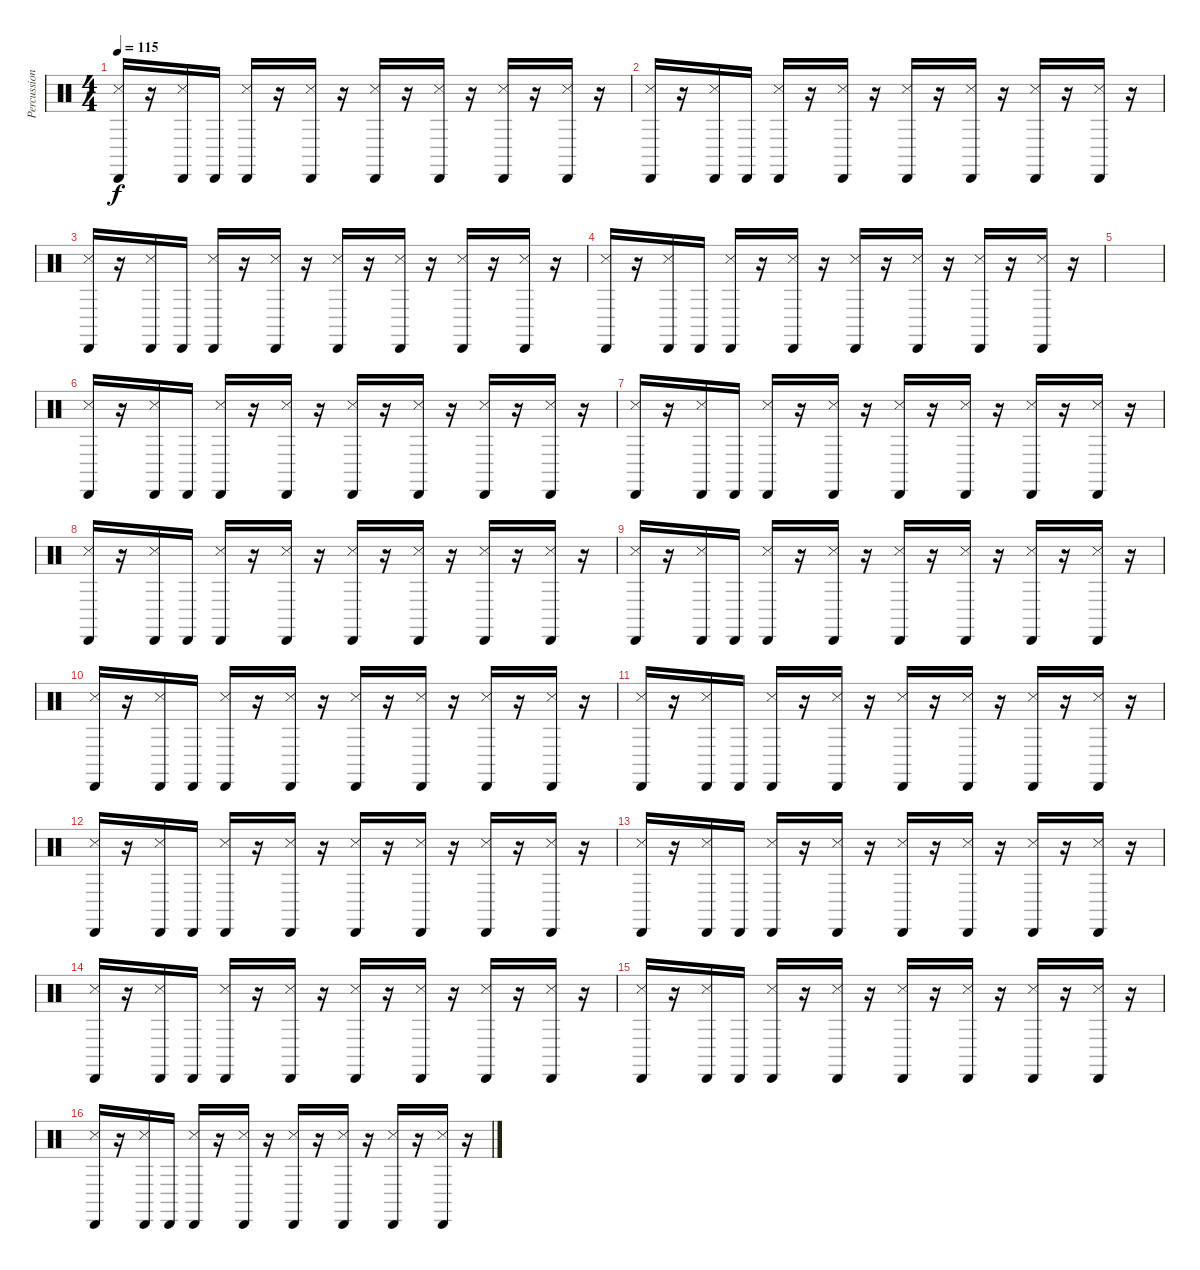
\track ("Percussion" "Percussion") {instrument percussion}
\staff {score}
\articulation defaults
\ts (4 4)
\tempo 115
\clef neutral
\ks c
("Cabasa (hit)" "Snare (side stick) 3").16{dy f} r.16 ("Cabasa (hit)" "Snare (side stick) 3").16 "Cabasa (hit)".16 ("Cabasa (hit)" "Snare (side stick) 3").16 r.16 ("Cabasa (hit)" "Snare (side stick) 3").16 r.16 ("Cabasa (hit)" "Snare (side stick) 3").16 r.16 ("Cabasa (hit)" "Snare (side stick) 3").16 r.16 ("Cabasa (hit)" "Snare (side stick) 3").16 r.16 ("Cabasa (hit)" "Snare (side stick) 3").16 r.16 |
("Cabasa (hit)" "Snare (side stick) 3").16 r.16 ("Cabasa (hit)" "Snare (side stick) 3").16 "Cabasa (hit)".16 ("Cabasa (hit)" "Snare (side stick) 3").16 r.16 ("Cabasa (hit)" "Snare (side stick) 3").16 r.16 ("Cabasa (hit)" "Snare (side stick) 3").16 r.16 ("Cabasa (hit)" "Snare (side stick) 3").16 r.16 ("Cabasa (hit)" "Snare (side stick) 3").16 r.16 ("Cabasa (hit)" "Snare (side stick) 3").16 r.16 |
("Cabasa (hit)" "Snare (side stick) 3").16 r.16 ("Cabasa (hit)" "Snare (side stick) 3").16 "Cabasa (hit)".16 ("Cabasa (hit)" "Snare (side stick) 3").16 r.16 ("Cabasa (hit)" "Snare (side stick) 3").16 r.16 ("Cabasa (hit)" "Snare (side stick) 3").16 r.16 ("Cabasa (hit)" "Snare (side stick) 3").16 r.16 ("Cabasa (hit)" "Snare (side stick) 3").16 r.16 ("Cabasa (hit)" "Snare (side stick) 3").16 r.16 |
("Cabasa (hit)" "Snare (side stick) 3").16 r.16 ("Cabasa (hit)" "Snare (side stick) 3").16 "Cabasa (hit)".16 ("Cabasa (hit)" "Snare (side stick) 3").16 r.16 ("Cabasa (hit)" "Snare (side stick) 3").16 r.16 ("Cabasa (hit)" "Snare (side stick) 3").16 r.16 ("Cabasa (hit)" "Snare (side stick) 3").16 r.16 ("Cabasa (hit)" "Snare (side stick) 3").16 r.16 ("Cabasa (hit)" "Snare (side stick) 3").16 r.16 |
|
("Cabasa (hit)" "Snare (side stick) 3").16 r.16 ("Cabasa (hit)" "Snare (side stick) 3").16 "Cabasa (hit)".16 ("Cabasa (hit)" "Snare (side stick) 3").16 r.16 ("Cabasa (hit)" "Snare (side stick) 3").16 r.16 ("Cabasa (hit)" "Snare (side stick) 3").16 r.16 ("Cabasa (hit)" "Snare (side stick) 3").16 r.16 ("Cabasa (hit)" "Snare (side stick) 3").16 r.16 ("Cabasa (hit)" "Snare (side stick) 3").16 r.16 |
("Cabasa (hit)" "Snare (side stick) 3").16 r.16 ("Cabasa (hit)" "Snare (side stick) 3").16 "Cabasa (hit)".16 ("Cabasa (hit)" "Snare (side stick) 3").16 r.16 ("Cabasa (hit)" "Snare (side stick) 3").16 r.16 ("Cabasa (hit)" "Snare (side stick) 3").16 r.16 ("Cabasa (hit)" "Snare (side stick) 3").16 r.16 ("Cabasa (hit)" "Snare (side stick) 3").16 r.16 ("Cabasa (hit)" "Snare (side stick) 3").16 r.16 |
("Cabasa (hit)" "Snare (side stick) 3").16 r.16 ("Cabasa (hit)" "Snare (side stick) 3").16 "Cabasa (hit)".16 ("Cabasa (hit)" "Snare (side stick) 3").16 r.16 ("Cabasa (hit)" "Snare (side stick) 3").16 r.16 ("Cabasa (hit)" "Snare (side stick) 3").16 r.16 ("Cabasa (hit)" "Snare (side stick) 3").16 r.16 ("Cabasa (hit)" "Snare (side stick) 3").16 r.16 ("Cabasa (hit)" "Snare (side stick) 3").16 r.16 |
("Cabasa (hit)" "Snare (side stick) 3").16 r.16 ("Cabasa (hit)" "Snare (side stick) 3").16 "Cabasa (hit)".16 ("Cabasa (hit)" "Snare (side stick) 3").16 r.16 ("Cabasa (hit)" "Snare (side stick) 3").16 r.16 ("Cabasa (hit)" "Snare (side stick) 3").16 r.16 ("Cabasa (hit)" "Snare (side stick) 3").16 r.16 ("Cabasa (hit)" "Snare (side stick) 3").16 r.16 ("Cabasa (hit)" "Snare (side stick) 3").16 r.16 |
("Cabasa (hit)" "Snare (side stick) 3").16 r.16 ("Cabasa (hit)" "Snare (side stick) 3").16 "Cabasa (hit)".16 ("Cabasa (hit)" "Snare (side stick) 3").16 r.16 ("Cabasa (hit)" "Snare (side stick) 3").16 r.16 ("Cabasa (hit)" "Snare (side stick) 3").16 r.16 ("Cabasa (hit)" "Snare (side stick) 3").16 r.16 ("Cabasa (hit)" "Snare (side stick) 3").16 r.16 ("Cabasa (hit)" "Snare (side stick) 3").16 r.16 |
("Cabasa (hit)" "Snare (side stick) 3").16 r.16 ("Cabasa (hit)" "Snare (side stick) 3").16 "Cabasa (hit)".16 ("Cabasa (hit)" "Snare (side stick) 3").16 r.16 ("Cabasa (hit)" "Snare (side stick) 3").16 r.16 ("Cabasa (hit)" "Snare (side stick) 3").16 r.16 ("Cabasa (hit)" "Snare (side stick) 3").16 r.16 ("Cabasa (hit)" "Snare (side stick) 3").16 r.16 ("Cabasa (hit)" "Snare (side stick) 3").16 r.16 |
("Cabasa (hit)" "Snare (side stick) 3").16 r.16 ("Cabasa (hit)" "Snare (side stick) 3").16 "Cabasa (hit)".16 ("Cabasa (hit)" "Snare (side stick) 3").16 r.16 ("Cabasa (hit)" "Snare (side stick) 3").16 r.16 ("Cabasa (hit)" "Snare (side stick) 3").16 r.16 ("Cabasa (hit)" "Snare (side stick) 3").16 r.16 ("Cabasa (hit)" "Snare (side stick) 3").16 r.16 ("Cabasa (hit)" "Snare (side stick) 3").16 r.16 |
("Cabasa (hit)" "Snare (side stick) 3").16 r.16 ("Cabasa (hit)" "Snare (side stick) 3").16 "Cabasa (hit)".16 ("Cabasa (hit)" "Snare (side stick) 3").16 r.16 ("Cabasa (hit)" "Snare (side stick) 3").16 r.16 ("Cabasa (hit)" "Snare (side stick) 3").16 r.16 ("Cabasa (hit)" "Snare (side stick) 3").16 r.16 ("Cabasa (hit)" "Snare (side stick) 3").16 r.16 ("Cabasa (hit)" "Snare (side stick) 3").16 r.16 |
("Cabasa (hit)" "Snare (side stick) 3").16 r.16 ("Cabasa (hit)" "Snare (side stick) 3").16 "Cabasa (hit)".16 ("Cabasa (hit)" "Snare (side stick) 3").16 r.16 ("Cabasa (hit)" "Snare (side stick) 3").16 r.16 ("Cabasa (hit)" "Snare (side stick) 3").16 r.16 ("Cabasa (hit)" "Snare (side stick) 3").16 r.16 ("Cabasa (hit)" "Snare (side stick) 3").16 r.16 ("Cabasa (hit)" "Snare (side stick) 3").16 r.16 |
("Cabasa (hit)" "Snare (side stick) 3").16 r.16 ("Cabasa (hit)" "Snare (side stick) 3").16 "Cabasa (hit)".16 ("Cabasa (hit)" "Snare (side stick) 3").16 r.16 ("Cabasa (hit)" "Snare (side stick) 3").16 r.16 ("Cabasa (hit)" "Snare (side stick) 3").16 r.16 ("Cabasa (hit)" "Snare (side stick) 3").16 r.16 ("Cabasa (hit)" "Snare (side stick) 3").16 r.16 ("Cabasa (hit)" "Snare (side stick) 3").16 r.16 |
("Cabasa (hit)" "Snare (side stick) 3").16 r.16 ("Cabasa (hit)" "Snare (side stick) 3").16 "Cabasa (hit)".16 ("Cabasa (hit)" "Snare (side stick) 3").16 r.16 ("Cabasa (hit)" "Snare (side stick) 3").16 r.16 ("Cabasa (hit)" "Snare (side stick) 3").16 r.16 ("Cabasa (hit)" "Snare (side stick) 3").16 r.16 ("Cabasa (hit)" "Snare (side stick) 3").16 r.16 ("Cabasa (hit)" "Snare (side stick) 3").16 r.16
